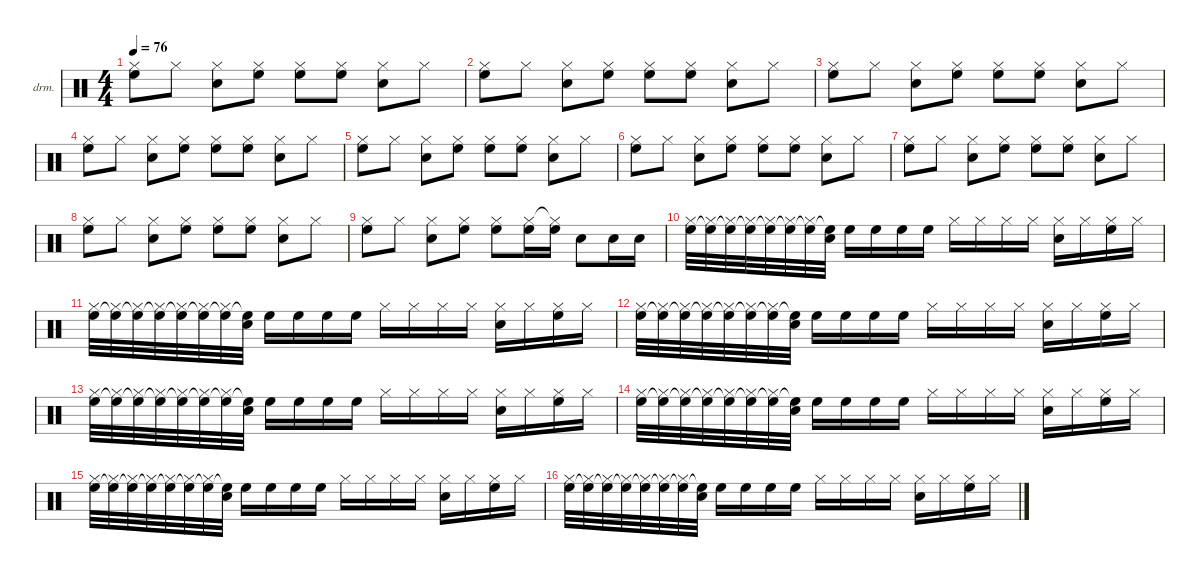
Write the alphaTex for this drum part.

\defaultSystemsLayout 4
\hideDynamics
\bracketExtendMode nobrackets
\firstSystemTrackNameOrientation horizontal
\otherSystemsTrackNameOrientation horizontal
\track ("¹ÄÉù" "drm.") {instrument percussion}
\staff {score}
\articulation defaults
\ts (4 4)
\tempo 76
\clef neutral
\ks c
("Hi-Hat (closed)" "High Floor Tom (hit)").8{dy f} "Hi-Hat (closed)".8 ("Hi-Hat (closed)" "Snare (hit) 2").8 ("Hi-Hat (closed)" "High Floor Tom (hit)").8 ("Hi-Hat (closed)" "High Floor Tom (hit)").8 ("Hi-Hat (closed)" "High Floor Tom (hit)").8 ("Hi-Hat (closed)" "Snare (hit) 2").8 "Hi-Hat (closed)".8 |
("Hi-Hat (closed)" "High Floor Tom (hit)").8 "Hi-Hat (closed)".8 ("Hi-Hat (closed)" "Snare (hit) 2").8 ("Hi-Hat (closed)" "High Floor Tom (hit)").8 ("Hi-Hat (closed)" "High Floor Tom (hit)").8 ("Hi-Hat (closed)" "High Floor Tom (hit)").8 ("Hi-Hat (closed)" "Snare (hit) 2").8 "Hi-Hat (closed)".8 |
("Hi-Hat (closed)" "High Floor Tom (hit)").8 "Hi-Hat (closed)".8 ("Hi-Hat (closed)" "Snare (hit) 2").8 ("Hi-Hat (closed)" "High Floor Tom (hit)").8 ("Hi-Hat (closed)" "High Floor Tom (hit)").8 ("Hi-Hat (closed)" "High Floor Tom (hit)").8 ("Hi-Hat (closed)" "Snare (hit) 2").8 "Hi-Hat (closed)".8 |
("Hi-Hat (closed)" "High Floor Tom (hit)").8 "Hi-Hat (closed)".8 ("Hi-Hat (closed)" "Snare (hit) 2").8 ("Hi-Hat (closed)" "High Floor Tom (hit)").8 ("Hi-Hat (closed)" "High Floor Tom (hit)").8 ("Hi-Hat (closed)" "High Floor Tom (hit)").8 ("Hi-Hat (closed)" "Snare (hit) 2").8 "Hi-Hat (closed)".8 |
("Hi-Hat (closed)" "High Floor Tom (hit)").8 "Hi-Hat (closed)".8 ("Hi-Hat (closed)" "Snare (hit) 2").8 ("Hi-Hat (closed)" "High Floor Tom (hit)").8 ("Hi-Hat (closed)" "High Floor Tom (hit)").8 ("Hi-Hat (closed)" "High Floor Tom (hit)").8 ("Hi-Hat (closed)" "Snare (hit) 2").8 "Hi-Hat (closed)".8 |
("Hi-Hat (closed)" "High Floor Tom (hit)").8 "Hi-Hat (closed)".8 ("Hi-Hat (closed)" "Snare (hit) 2").8 ("Hi-Hat (closed)" "High Floor Tom (hit)").8 ("Hi-Hat (closed)" "High Floor Tom (hit)").8 ("Hi-Hat (closed)" "High Floor Tom (hit)").8 ("Hi-Hat (closed)" "Snare (hit) 2").8 "Hi-Hat (closed)".8 |
("Hi-Hat (closed)" "High Floor Tom (hit)").8 "Hi-Hat (closed)".8 ("Hi-Hat (closed)" "Snare (hit) 2").8 ("Hi-Hat (closed)" "High Floor Tom (hit)").8 ("Hi-Hat (closed)" "High Floor Tom (hit)").8 ("Hi-Hat (closed)" "High Floor Tom (hit)").8 ("Hi-Hat (closed)" "Snare (hit) 2").8 "Hi-Hat (closed)".8 |
("Hi-Hat (closed)" "High Floor Tom (hit)").8 "Hi-Hat (closed)".8 ("Hi-Hat (closed)" "Snare (hit) 2").8 ("Hi-Hat (closed)" "High Floor Tom (hit)").8 ("Hi-Hat (closed)" "High Floor Tom (hit)").8 ("Hi-Hat (closed)" "High Floor Tom (hit)").8 ("Hi-Hat (closed)" "Snare (hit) 2").8 "Hi-Hat (closed)".8 |
("Hi-Hat (closed)" "High Floor Tom (hit)").8 "Hi-Hat (closed)".8 ("Hi-Hat (closed)" "Snare (hit) 2").8 ("Hi-Hat (closed)" "High Floor Tom (hit)").8 ("Hi-Hat (closed)" "High Floor Tom (hit)").8 ("Hi-Hat (closed)" "High Floor Tom (hit)").16 ("Hi-Hat (closed)"{t} "High Floor Tom (hit)").16 "Snare (hit) 2".8 "Snare (hit) 2".16 "Snare (hit) 2".16 |
("Hi-Hat (closed)" "High Floor Tom (hit)").32 ("Hi-Hat (closed)" "High Floor Tom (hit)"{t}).32 ("Hi-Hat (closed)" "High Floor Tom (hit)"{t}).32 ("Hi-Hat (closed)" "High Floor Tom (hit)"{t}).32 ("Hi-Hat (closed)" "High Floor Tom (hit)"{t}).32 ("Hi-Hat (closed)" "High Floor Tom (hit)"{t}).32 ("Hi-Hat (closed)" "High Floor Tom (hit)"{t}).32 ("Snare (hit) 2" "High Floor Tom (hit)"{t}).32 "High Floor Tom (hit)".16 "High Floor Tom (hit)".16 "High Floor Tom (hit)".16 "High Floor Tom (hit)".16 "Hi-Hat (closed)".16 "Hi-Hat (closed)".16 "Hi-Hat (closed)".16 "Hi-Hat (closed)".16 ("Hi-Hat (closed)" "Snare (hit) 2").16 "Hi-Hat (closed)".16 ("Hi-Hat (closed)" "High Floor Tom (hit)").16 "Hi-Hat (closed)".16 |
("Hi-Hat (closed)" "High Floor Tom (hit)").32 ("Hi-Hat (closed)" "High Floor Tom (hit)"{t}).32 ("Hi-Hat (closed)" "High Floor Tom (hit)"{t}).32 ("Hi-Hat (closed)" "High Floor Tom (hit)"{t}).32 ("Hi-Hat (closed)" "High Floor Tom (hit)"{t}).32 ("Hi-Hat (closed)" "High Floor Tom (hit)"{t}).32 ("Hi-Hat (closed)" "High Floor Tom (hit)"{t}).32 ("Snare (hit) 2" "High Floor Tom (hit)"{t}).32 "High Floor Tom (hit)".16 "High Floor Tom (hit)".16 "High Floor Tom (hit)".16 "High Floor Tom (hit)".16 "Hi-Hat (closed)".16 "Hi-Hat (closed)".16 "Hi-Hat (closed)".16 "Hi-Hat (closed)".16 ("Hi-Hat (closed)" "Snare (hit) 2").16 "Hi-Hat (closed)".16 ("Hi-Hat (closed)" "High Floor Tom (hit)").16 "Hi-Hat (closed)".16 |
("Hi-Hat (closed)" "High Floor Tom (hit)").32 ("Hi-Hat (closed)" "High Floor Tom (hit)"{t}).32 ("Hi-Hat (closed)" "High Floor Tom (hit)"{t}).32 ("Hi-Hat (closed)" "High Floor Tom (hit)"{t}).32 ("Hi-Hat (closed)" "High Floor Tom (hit)"{t}).32 ("Hi-Hat (closed)" "High Floor Tom (hit)"{t}).32 ("Hi-Hat (closed)" "High Floor Tom (hit)"{t}).32 ("Snare (hit) 2" "High Floor Tom (hit)"{t}).32 "High Floor Tom (hit)".16 "High Floor Tom (hit)".16 "High Floor Tom (hit)".16 "High Floor Tom (hit)".16 "Hi-Hat (closed)".16 "Hi-Hat (closed)".16 "Hi-Hat (closed)".16 "Hi-Hat (closed)".16 ("Hi-Hat (closed)" "Snare (hit) 2").16 "Hi-Hat (closed)".16 ("Hi-Hat (closed)" "High Floor Tom (hit)").16 "Hi-Hat (closed)".16 |
("Hi-Hat (closed)" "High Floor Tom (hit)").32 ("Hi-Hat (closed)" "High Floor Tom (hit)"{t}).32 ("Hi-Hat (closed)" "High Floor Tom (hit)"{t}).32 ("Hi-Hat (closed)" "High Floor Tom (hit)"{t}).32 ("Hi-Hat (closed)" "High Floor Tom (hit)"{t}).32 ("Hi-Hat (closed)" "High Floor Tom (hit)"{t}).32 ("Hi-Hat (closed)" "High Floor Tom (hit)"{t}).32 ("Snare (hit) 2" "High Floor Tom (hit)"{t}).32 "High Floor Tom (hit)".16 "High Floor Tom (hit)".16 "High Floor Tom (hit)".16 "High Floor Tom (hit)".16 "Hi-Hat (closed)".16 "Hi-Hat (closed)".16 "Hi-Hat (closed)".16 "Hi-Hat (closed)".16 ("Hi-Hat (closed)" "Snare (hit) 2").16 "Hi-Hat (closed)".16 ("Hi-Hat (closed)" "High Floor Tom (hit)").16 "Hi-Hat (closed)".16 |
("Hi-Hat (closed)" "High Floor Tom (hit)").32 ("Hi-Hat (closed)" "High Floor Tom (hit)"{t}).32 ("Hi-Hat (closed)" "High Floor Tom (hit)"{t}).32 ("Hi-Hat (closed)" "High Floor Tom (hit)"{t}).32 ("Hi-Hat (closed)" "High Floor Tom (hit)"{t}).32 ("Hi-Hat (closed)" "High Floor Tom (hit)"{t}).32 ("Hi-Hat (closed)" "High Floor Tom (hit)"{t}).32 ("Snare (hit) 2" "High Floor Tom (hit)"{t}).32 "High Floor Tom (hit)".16 "High Floor Tom (hit)".16 "High Floor Tom (hit)".16 "High Floor Tom (hit)".16 "Hi-Hat (closed)".16 "Hi-Hat (closed)".16 "Hi-Hat (closed)".16 "Hi-Hat (closed)".16 ("Hi-Hat (closed)" "Snare (hit) 2").16 "Hi-Hat (closed)".16 ("Hi-Hat (closed)" "High Floor Tom (hit)").16 "Hi-Hat (closed)".16 |
("Hi-Hat (closed)" "High Floor Tom (hit)").32 ("Hi-Hat (closed)" "High Floor Tom (hit)"{t}).32 ("Hi-Hat (closed)" "High Floor Tom (hit)"{t}).32 ("Hi-Hat (closed)" "High Floor Tom (hit)"{t}).32 ("Hi-Hat (closed)" "High Floor Tom (hit)"{t}).32 ("Hi-Hat (closed)" "High Floor Tom (hit)"{t}).32 ("Hi-Hat (closed)" "High Floor Tom (hit)"{t}).32 ("Snare (hit) 2" "High Floor Tom (hit)"{t}).32 "High Floor Tom (hit)".16 "High Floor Tom (hit)".16 "High Floor Tom (hit)".16 "High Floor Tom (hit)".16 "Hi-Hat (closed)".16 "Hi-Hat (closed)".16 "Hi-Hat (closed)".16 "Hi-Hat (closed)".16 ("Hi-Hat (closed)" "Snare (hit) 2").16 "Hi-Hat (closed)".16 ("Hi-Hat (closed)" "High Floor Tom (hit)").16 "Hi-Hat (closed)".16 |
("Hi-Hat (closed)" "High Floor Tom (hit)").32 ("Hi-Hat (closed)" "High Floor Tom (hit)"{t}).32 ("Hi-Hat (closed)" "High Floor Tom (hit)"{t}).32 ("Hi-Hat (closed)" "High Floor Tom (hit)"{t}).32 ("Hi-Hat (closed)" "High Floor Tom (hit)"{t}).32 ("Hi-Hat (closed)" "High Floor Tom (hit)"{t}).32 ("Hi-Hat (closed)" "High Floor Tom (hit)"{t}).32 ("Snare (hit) 2" "High Floor Tom (hit)"{t}).32 "High Floor Tom (hit)".16 "High Floor Tom (hit)".16 "High Floor Tom (hit)".16 "High Floor Tom (hit)".16 "Hi-Hat (closed)".16 "Hi-Hat (closed)".16 "Hi-Hat (closed)".16 "Hi-Hat (closed)".16 ("Hi-Hat (closed)" "Snare (hit) 2").16 "Hi-Hat (closed)".16 ("Hi-Hat (closed)" "High Floor Tom (hit)").16 "Hi-Hat (closed)".16
